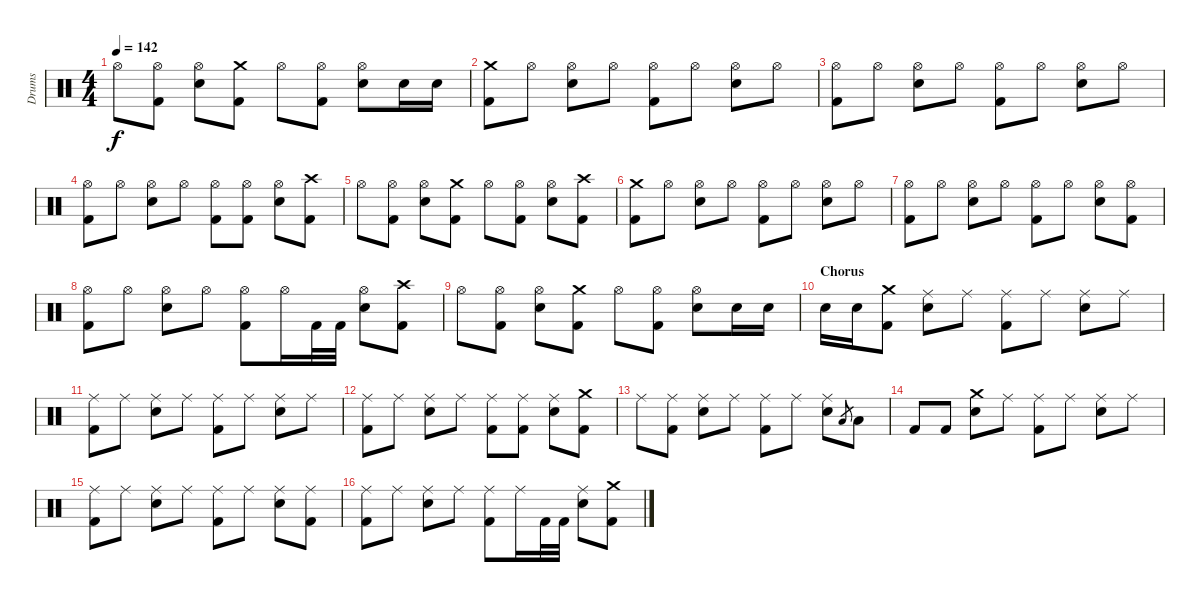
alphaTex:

\track ("Drums" "Drums") {instrument percussion}
\staff {score}
\articulation defaults
\ts (4 4)
\tempo 142
\clef neutral
\ks c "Hi-Hat (open)".8{dy f}
("Hi-Hat (open)" "Kick (hit) 2").8 ("Hi-Hat (open)" "Snare (hit) 2").8 ("Crash medium (hit)" "Kick (hit) 2").8 "Hi-Hat (open)".8 ("Hi-Hat (open)" "Kick (hit) 2").8 ("Hi-Hat (open)" "Snare (hit) 2").8 "Snare (hit) 2".16 "Snare (hit) 2".16 |
("Crash medium (hit)" "Kick (hit) 2").8 "Hi-Hat (open)".8 ("Hi-Hat (open)" "Snare (hit) 2").8 "Hi-Hat (open)".8 ("Hi-Hat (open)" "Kick (hit) 2").8 "Hi-Hat (open)".8 ("Hi-Hat (open)" "Snare (hit) 2").8 "Hi-Hat (open)".8 |
("Hi-Hat (open)" "Kick (hit) 2").8 "Hi-Hat (open)".8 ("Hi-Hat (open)" "Snare (hit) 2").8 "Hi-Hat (open)".8 ("Hi-Hat (open)" "Kick (hit) 2").8 "Hi-Hat (open)".8 ("Hi-Hat (open)" "Snare (hit) 2").8 "Hi-Hat (open)".8 |
("Hi-Hat (open)" "Kick (hit) 2").8 "Hi-Hat (open)".8 ("Hi-Hat (open)" "Snare (hit) 2").8 "Hi-Hat (open)".8 ("Hi-Hat (open)" "Kick (hit) 2").8 ("Hi-Hat (open)" "Kick (hit) 2").8 ("Hi-Hat (open)" "Snare (hit) 2").8 ("Crash high (hit)" "Kick (hit) 2").8 |
"Hi-Hat (open)".8 ("Hi-Hat (open)" "Kick (hit) 2").8 ("Hi-Hat (open)" "Snare (hit) 2").8 ("Crash medium (hit)" "Kick (hit) 2").8 "Hi-Hat (open)".8 ("Hi-Hat (open)" "Kick (hit) 2").8 ("Hi-Hat (open)" "Snare (hit) 2").8 ("Crash high (hit)" "Kick (hit) 2").8 |
("Crash medium (hit)" "Kick (hit) 2").8 "Hi-Hat (open)".8 ("Hi-Hat (open)" "Snare (hit) 2").8 "Hi-Hat (open)".8 ("Hi-Hat (open)" "Kick (hit) 2").8 "Hi-Hat (open)".8 ("Hi-Hat (open)" "Snare (hit) 2").8 "Hi-Hat (open)".8 |
("Hi-Hat (open)" "Kick (hit) 2").8 "Hi-Hat (open)".8 ("Hi-Hat (open)" "Snare (hit) 2").8 "Hi-Hat (open)".8 ("Hi-Hat (open)" "Kick (hit) 2").8 "Hi-Hat (open)".8 ("Hi-Hat (open)" "Snare (hit) 2").8 ("Hi-Hat (open)" "Kick (hit) 2").8 |
("Hi-Hat (open)" "Kick (hit) 2").8 "Hi-Hat (open)".8 ("Hi-Hat (open)" "Snare (hit) 2").8 "Hi-Hat (open)".8 ("Hi-Hat (open)" "Kick (hit) 2").8 "Hi-Hat (open)".16 "Kick (hit) 2".32 "Kick (hit) 2".32 ("Hi-Hat (open)" "Snare (hit) 2").8 ("Crash high (hit)" "Kick (hit) 2").8 |
"Hi-Hat (open)".8 ("Hi-Hat (open)" "Kick (hit) 2").8 ("Hi-Hat (open)" "Snare (hit) 2").8 ("Crash medium (hit)" "Kick (hit) 2").8 "Hi-Hat (open)".8 ("Hi-Hat (open)" "Kick (hit) 2").8 ("Hi-Hat (open)" "Snare (hit) 2").8 "Snare (hit) 2".16 "Snare (hit) 2".16 |
\section ("" "Chorus")
"Snare (hit) 2".16 "Snare (hit) 2".16 ("Crash medium (hit)" "Kick (hit) 2").8 ("Ride (middle)" "Snare (hit) 2").8 "Ride (middle)".8 ("Ride (middle)" "Kick (hit) 2").8 "Ride (middle)".8 ("Ride (middle)" "Snare (hit) 2").8 "Ride (middle)".8 |
("Ride (middle)" "Kick (hit) 2").8 "Ride (middle)".8 ("Ride (middle)" "Snare (hit) 2").8 "Ride (middle)".8 ("Ride (middle)" "Kick (hit) 2").8 "Ride (middle)".8 ("Ride (middle)" "Snare (hit) 2").8 "Ride (middle)".8 |
("Ride (middle)" "Kick (hit) 2").8 "Ride (middle)".8 ("Ride (middle)" "Snare (hit) 2").8 "Ride (middle)".8 ("Ride (middle)" "Kick (hit) 2").8 ("Ride (middle)" "Kick (hit) 2").8 ("Ride (middle)" "Snare (hit) 2").8 ("Crash medium (hit)" "Kick (hit) 2").8 |
"Ride (middle)".8 ("Ride (middle)" "Kick (hit) 2").8 ("Ride (middle)" "Snare (hit) 2").8 "Ride (middle)".8 ("Ride (middle)" "Kick (hit) 2").8 "Ride (middle)".8 ("Ride (middle)" "Snare (hit) 2").8 "Low Floor Tom (hit)".8{gr} "Low Floor Tom (hit)".8 |
"Kick (hit) 2".8 "Kick (hit) 2".8 ("Crash medium (hit)" "Snare (hit) 2").8 "Ride (middle)".8 ("Ride (middle)" "Kick (hit) 2").8 "Ride (middle)".8 ("Ride (middle)" "Snare (hit) 2").8 "Ride (middle)".8 |
("Ride (middle)" "Kick (hit) 2").8 "Ride (middle)".8 ("Ride (middle)" "Snare (hit) 2").8 "Ride (middle)".8 ("Ride (middle)" "Kick (hit) 2").8 "Ride (middle)".8 ("Ride (middle)" "Snare (hit) 2").8 ("Ride (middle)" "Kick (hit) 2").8 |
("Ride (middle)" "Kick (hit) 2").8 "Ride (middle)".8 ("Ride (middle)" "Snare (hit) 2").8 "Ride (middle)".8 ("Ride (middle)" "Kick (hit) 2").8 "Ride (middle)".16 "Kick (hit) 2".32 "Kick (hit) 2".32 ("Ride (middle)" "Snare (hit) 2").8 ("Crash medium (hit)" "Kick (hit) 2").8
